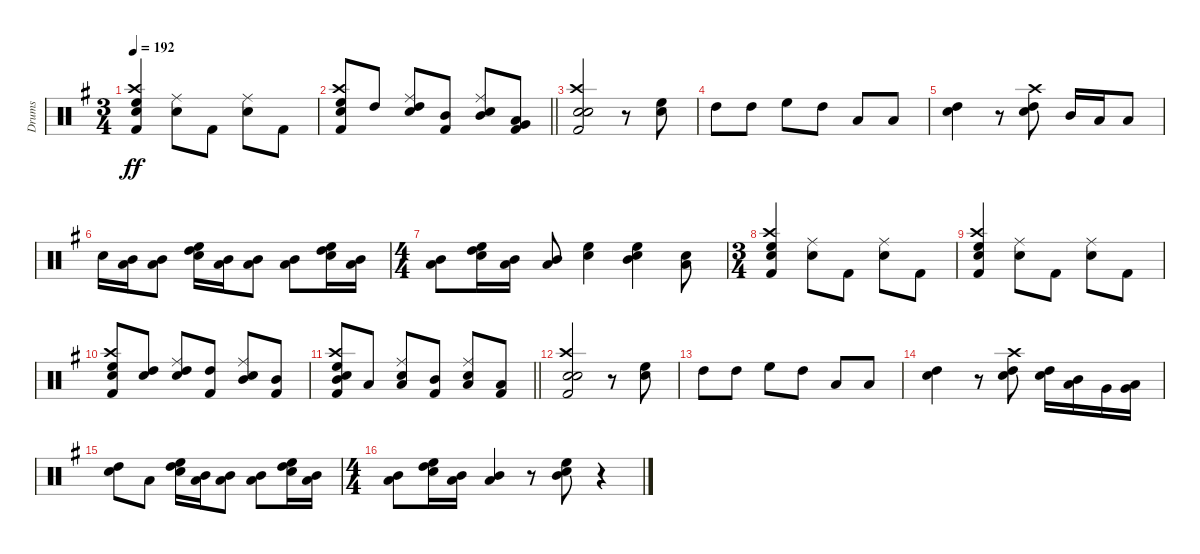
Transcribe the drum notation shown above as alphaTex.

\track ("Drums" "Drums") {instrument percussion}
\staff {score}
\articulation defaults
\ts (3 4)
\tempo 192
\clef neutral
\ks g
("Kick (hit) 2" "Crash high (hit)" "High Floor Tom (hit)" "Electric Snare (hit)").4{dy ff} ("Ride (middle)" "Electric Snare (hit)").8 "Kick (hit) 2".8 ("Ride (middle)" "Electric Snare (hit)").8 "Kick (hit) 2".8 |
\barLineRight lightlight
("Kick (hit) 2" "Crash high (hit)" "High Floor Tom (hit)" "Electric Snare (hit)").8 "High Tom (hit)".8 ("High Tom (hit)" "Ride (middle)" "Electric Snare (hit)").8 ("Mid Tom (hit)" "Kick (hit) 2").8 ("Mid Tom (hit)" "Ride (middle)" "Electric Snare (hit)").8 ("Very Low Tom (hit)" "Low Tom (hit)" "Kick (hit) 2").8 |
("Kick (hit) 2" "Snare (hit) 2" "Electric Snare (hit)" "Crash high (hit)").2 r.8 ("High Floor Tom (hit)" "Electric Snare (hit)").8 |
"High Tom (hit)".8 "High Tom (hit)".8 "High Floor Tom (hit)".8 "High Tom (hit)".8 "Low Tom (hit)".8 "Low Tom (hit)".8 |
("Electric Snare (hit)" "High Tom (hit)").4 r.8 ("Electric Snare (hit)" "High Tom (hit)" "Crash high (hit)").8 "Mid Tom (hit)".16 "Low Tom (hit)".16 "Low Tom (hit)".8 |
"Electric Snare (hit)".16 ("Mid Tom (hit)" "Low Tom (hit)").16 ("Mid Tom (hit)" "Low Tom (hit)").8 ("High Floor Tom (hit)" "High Tom (hit)" "Electric Snare (hit)").16 ("Mid Tom (hit)" "Low Tom (hit)").16 ("Mid Tom (hit)" "Low Tom (hit)").8 ("Mid Tom (hit)" "Low Tom (hit)").8 ("High Floor Tom (hit)" "High Tom (hit)" "Electric Snare (hit)").16 ("Mid Tom (hit)" "Low Tom (hit)").16 |
\ts (4 4)
("Mid Tom (hit)" "Low Tom (hit)").8 ("High Floor Tom (hit)" "High Tom (hit)" "Electric Snare (hit)").16 ("Mid Tom (hit)" "Low Tom (hit)").16 ("Mid Tom (hit)" "Low Tom (hit)").8 ("Electric Snare (hit)" "High Floor Tom (hit)").4 ("Mid Tom (hit)" "High Floor Tom (hit)" "Electric Snare (hit)").4 ("Electric Snare (hit)" "Low Tom (hit)").8 |
\ts (3 4)
("Kick (hit) 2" "Crash high (hit)" "High Floor Tom (hit)" "Electric Snare (hit)").4 ("Ride (middle)" "Electric Snare (hit)").8 "Kick (hit) 2".8 ("Ride (middle)" "Electric Snare (hit)").8 "Kick (hit) 2".8 |
("Kick (hit) 2" "Crash high (hit)" "High Floor Tom (hit)" "Electric Snare (hit)").4 ("Ride (middle)" "Electric Snare (hit)").8 "Kick (hit) 2".8 ("Ride (middle)" "Electric Snare (hit)").8 "Kick (hit) 2".8 |
("Kick (hit) 2" "Crash high (hit)" "High Floor Tom (hit)" "Electric Snare (hit)").8 ("Electric Snare (hit)" "High Tom (hit)").8 ("High Tom (hit)" "Ride (middle)" "Electric Snare (hit)").8 ("High Tom (hit)" "Kick (hit) 2").8 ("Mid Tom (hit)" "Ride (middle)" "Electric Snare (hit)").8 ("Mid Tom (hit)" "Kick (hit) 2").8 |
\barLineRight lightlight
("Mid Tom (hit)" "Kick (hit) 2" "Crash high (hit)" "High Floor Tom (hit)" "Electric Snare (hit)").8 "Low Tom (hit)".8 ("Low Tom (hit)" "Ride (middle)" "Electric Snare (hit)").8 ("Mid Tom (hit)" "Kick (hit) 2").8 ("Low Tom (hit)" "Ride (middle)" "Electric Snare (hit)").8 ("Low Tom (hit)" "Kick (hit) 2").8 |
("Kick (hit) 2" "Snare (hit) 2" "Electric Snare (hit)" "Crash high (hit)").2 r.8 ("High Floor Tom (hit)" "Electric Snare (hit)").8 |
"High Tom (hit)".8 "High Tom (hit)".8 "High Floor Tom (hit)".8 "High Tom (hit)".8 "Low Tom (hit)".8 "Low Tom (hit)".8 |
("Electric Snare (hit)" "High Tom (hit)").4 r.8 ("Electric Snare (hit)" "High Tom (hit)" "Crash high (hit)").8 ("High Tom (hit)" "Electric Snare (hit)").16 ("Low Tom (hit)" "Mid Tom (hit)").16 "Very Low Tom (hit)".16 ("Very Low Tom (hit)" "Low Tom (hit)").16 |
("High Tom (hit)" "Electric Snare (hit)").8 "Low Tom (hit)".8 ("High Floor Tom (hit)" "High Tom (hit)" "Electric Snare (hit)").16 ("Mid Tom (hit)" "Low Tom (hit)").16 ("Mid Tom (hit)" "Low Tom (hit)").8 ("Mid Tom (hit)" "Low Tom (hit)").8 ("High Floor Tom (hit)" "High Tom (hit)" "Electric Snare (hit)").16 ("Mid Tom (hit)" "Low Tom (hit)").16 |
\ts (4 4)
("Mid Tom (hit)" "Low Tom (hit)").8 ("High Floor Tom (hit)" "High Tom (hit)" "Electric Snare (hit)").16 ("Mid Tom (hit)" "Low Tom (hit)").16 ("Mid Tom (hit)" "Low Tom (hit)").4 r.8 ("Mid Tom (hit)" "High Floor Tom (hit)" "Electric Snare (hit)").8 r.4
